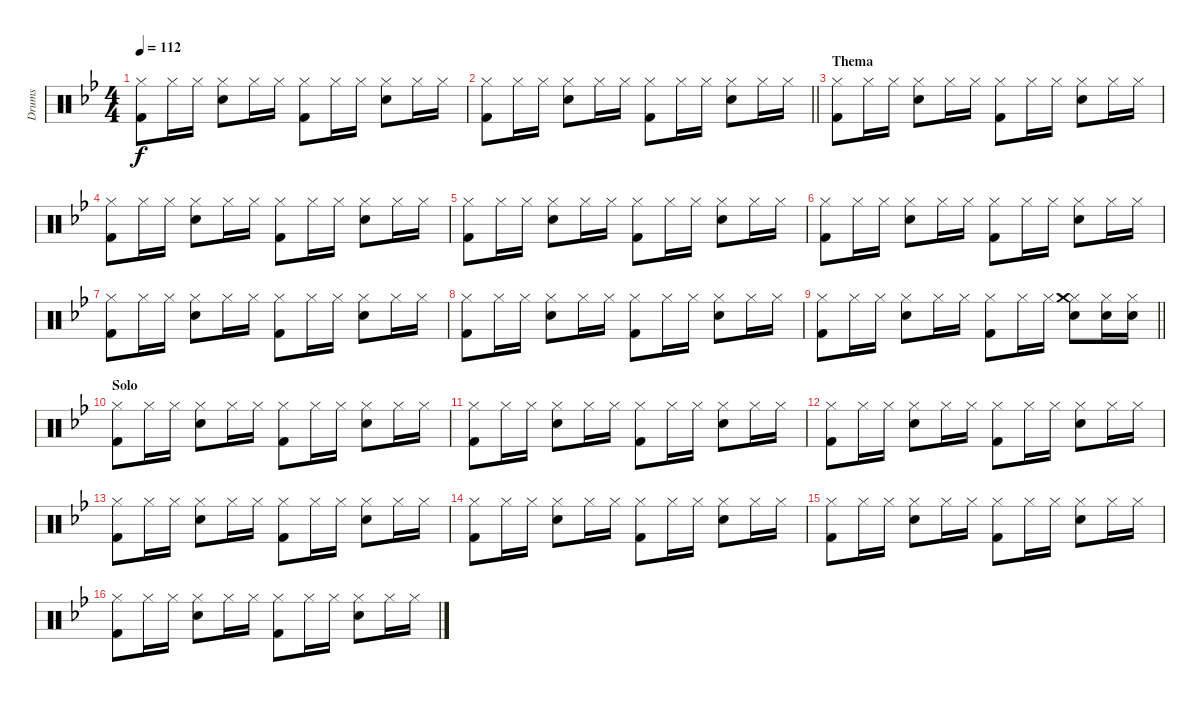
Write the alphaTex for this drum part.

\track ("Drums" "Drums") {instrument percussion}
\staff {score}
\articulation defaults
\ts (4 4)
\tempo 112
\clef neutral
\ks bb
("Hi-Hat (closed)" "Kick (hit) 2").8{dy f} "Hi-Hat (closed)".16 "Hi-Hat (closed)".16 ("Snare (hit) 2" "Hi-Hat (closed)").8 "Hi-Hat (closed)".16 "Hi-Hat (closed)".16 ("Hi-Hat (closed)" "Kick (hit) 2").8 "Hi-Hat (closed)".16 "Hi-Hat (closed)".16 ("Snare (hit) 2" "Hi-Hat (closed)").8 "Hi-Hat (closed)".16 "Hi-Hat (closed)".16 |
\barLineRight lightlight
("Hi-Hat (closed)" "Kick (hit) 2").8 "Hi-Hat (closed)".16 "Hi-Hat (closed)".16 ("Snare (hit) 2" "Hi-Hat (closed)").8 "Hi-Hat (closed)".16 "Hi-Hat (closed)".16 ("Hi-Hat (closed)" "Kick (hit) 2").8 "Hi-Hat (closed)".16 "Hi-Hat (closed)".16 ("Snare (hit) 2" "Hi-Hat (closed)").8 "Hi-Hat (closed)".16 "Hi-Hat (closed)".16 |
\section ("" "Thema")
("Hi-Hat (closed)" "Kick (hit) 2").8 "Hi-Hat (closed)".16 "Hi-Hat (closed)".16 ("Snare (hit) 2" "Hi-Hat (closed)").8 "Hi-Hat (closed)".16 "Hi-Hat (closed)".16 ("Hi-Hat (closed)" "Kick (hit) 2").8 "Hi-Hat (closed)".16 "Hi-Hat (closed)".16 ("Snare (hit) 2" "Hi-Hat (closed)").8 "Hi-Hat (closed)".16 "Hi-Hat (closed)".16 |
("Hi-Hat (closed)" "Kick (hit) 2").8 "Hi-Hat (closed)".16 "Hi-Hat (closed)".16 ("Snare (hit) 2" "Hi-Hat (closed)").8 "Hi-Hat (closed)".16 "Hi-Hat (closed)".16 ("Hi-Hat (closed)" "Kick (hit) 2").8 "Hi-Hat (closed)".16 "Hi-Hat (closed)".16 ("Snare (hit) 2" "Hi-Hat (closed)").8 "Hi-Hat (closed)".16 "Hi-Hat (closed)".16 |
("Hi-Hat (closed)" "Kick (hit) 2").8 "Hi-Hat (closed)".16 "Hi-Hat (closed)".16 ("Snare (hit) 2" "Hi-Hat (closed)").8 "Hi-Hat (closed)".16 "Hi-Hat (closed)".16 ("Hi-Hat (closed)" "Kick (hit) 2").8 "Hi-Hat (closed)".16 "Hi-Hat (closed)".16 ("Snare (hit) 2" "Hi-Hat (closed)").8 "Hi-Hat (closed)".16 "Hi-Hat (closed)".16 |
("Hi-Hat (closed)" "Kick (hit) 2").8 "Hi-Hat (closed)".16 "Hi-Hat (closed)".16 ("Snare (hit) 2" "Hi-Hat (closed)").8 "Hi-Hat (closed)".16 "Hi-Hat (closed)".16 ("Hi-Hat (closed)" "Kick (hit) 2").8 "Hi-Hat (closed)".16 "Hi-Hat (closed)".16 ("Snare (hit) 2" "Hi-Hat (closed)").8 "Hi-Hat (closed)".16 "Hi-Hat (closed)".16 |
("Hi-Hat (closed)" "Kick (hit) 2").8 "Hi-Hat (closed)".16 "Hi-Hat (closed)".16 ("Snare (hit) 2" "Hi-Hat (closed)").8 "Hi-Hat (closed)".16 "Hi-Hat (closed)".16 ("Hi-Hat (closed)" "Kick (hit) 2").8 "Hi-Hat (closed)".16 "Hi-Hat (closed)".16 ("Snare (hit) 2" "Hi-Hat (closed)").8 "Hi-Hat (closed)".16 "Hi-Hat (closed)".16 |
("Hi-Hat (closed)" "Kick (hit) 2").8 "Hi-Hat (closed)".16 "Hi-Hat (closed)".16 ("Snare (hit) 2" "Hi-Hat (closed)").8 "Hi-Hat (closed)".16 "Hi-Hat (closed)".16 ("Hi-Hat (closed)" "Kick (hit) 2").8 "Hi-Hat (closed)".16 "Hi-Hat (closed)".16 ("Snare (hit) 2" "Hi-Hat (closed)").8 "Hi-Hat (closed)".16 "Hi-Hat (closed)".16 |
\barLineRight lightlight
("Hi-Hat (closed)" "Kick (hit) 2").8 "Hi-Hat (closed)".16 "Hi-Hat (closed)".16 ("Snare (hit) 2" "Hi-Hat (closed)").8 "Hi-Hat (closed)".16 "Hi-Hat (closed)".16 ("Hi-Hat (closed)" "Kick (hit) 2").8 "Hi-Hat (closed)".16 "Hi-Hat (closed)".16 ("Snare (hit) 2" "Hi-Hat (closed)" "Crash medium (hit)").8 ("Hi-Hat (closed)" "Snare (hit) 2").16 ("Hi-Hat (closed)" "Snare (hit) 2").16 |
\section ("" "Solo")
("Hi-Hat (closed)" "Kick (hit) 2").8 "Hi-Hat (closed)".16 "Hi-Hat (closed)".16 ("Snare (hit) 2" "Hi-Hat (closed)").8 "Hi-Hat (closed)".16 "Hi-Hat (closed)".16 ("Hi-Hat (closed)" "Kick (hit) 2").8 "Hi-Hat (closed)".16 "Hi-Hat (closed)".16 ("Snare (hit) 2" "Hi-Hat (closed)").8 "Hi-Hat (closed)".16 "Hi-Hat (closed)".16 |
("Hi-Hat (closed)" "Kick (hit) 2").8 "Hi-Hat (closed)".16 "Hi-Hat (closed)".16 ("Snare (hit) 2" "Hi-Hat (closed)").8 "Hi-Hat (closed)".16 "Hi-Hat (closed)".16 ("Hi-Hat (closed)" "Kick (hit) 2").8 "Hi-Hat (closed)".16 "Hi-Hat (closed)".16 ("Snare (hit) 2" "Hi-Hat (closed)").8 "Hi-Hat (closed)".16 "Hi-Hat (closed)".16 |
("Hi-Hat (closed)" "Kick (hit) 2").8 "Hi-Hat (closed)".16 "Hi-Hat (closed)".16 ("Snare (hit) 2" "Hi-Hat (closed)").8 "Hi-Hat (closed)".16 "Hi-Hat (closed)".16 ("Hi-Hat (closed)" "Kick (hit) 2").8 "Hi-Hat (closed)".16 "Hi-Hat (closed)".16 ("Snare (hit) 2" "Hi-Hat (closed)").8 "Hi-Hat (closed)".16 "Hi-Hat (closed)".16 |
("Hi-Hat (closed)" "Kick (hit) 2").8 "Hi-Hat (closed)".16 "Hi-Hat (closed)".16 ("Snare (hit) 2" "Hi-Hat (closed)").8 "Hi-Hat (closed)".16 "Hi-Hat (closed)".16 ("Hi-Hat (closed)" "Kick (hit) 2").8 "Hi-Hat (closed)".16 "Hi-Hat (closed)".16 ("Snare (hit) 2" "Hi-Hat (closed)").8 "Hi-Hat (closed)".16 "Hi-Hat (closed)".16 |
("Hi-Hat (closed)" "Kick (hit) 2").8 "Hi-Hat (closed)".16 "Hi-Hat (closed)".16 ("Snare (hit) 2" "Hi-Hat (closed)").8 "Hi-Hat (closed)".16 "Hi-Hat (closed)".16 ("Hi-Hat (closed)" "Kick (hit) 2").8 "Hi-Hat (closed)".16 "Hi-Hat (closed)".16 ("Snare (hit) 2" "Hi-Hat (closed)").8 "Hi-Hat (closed)".16 "Hi-Hat (closed)".16 |
("Hi-Hat (closed)" "Kick (hit) 2").8 "Hi-Hat (closed)".16 "Hi-Hat (closed)".16 ("Snare (hit) 2" "Hi-Hat (closed)").8 "Hi-Hat (closed)".16 "Hi-Hat (closed)".16 ("Hi-Hat (closed)" "Kick (hit) 2").8 "Hi-Hat (closed)".16 "Hi-Hat (closed)".16 ("Snare (hit) 2" "Hi-Hat (closed)").8 "Hi-Hat (closed)".16 "Hi-Hat (closed)".16 |
("Hi-Hat (closed)" "Kick (hit) 2").8 "Hi-Hat (closed)".16 "Hi-Hat (closed)".16 ("Snare (hit) 2" "Hi-Hat (closed)").8 "Hi-Hat (closed)".16 "Hi-Hat (closed)".16 ("Hi-Hat (closed)" "Kick (hit) 2").8 "Hi-Hat (closed)".16 "Hi-Hat (closed)".16 ("Snare (hit) 2" "Hi-Hat (closed)").8 "Hi-Hat (closed)".16 "Hi-Hat (closed)".16
